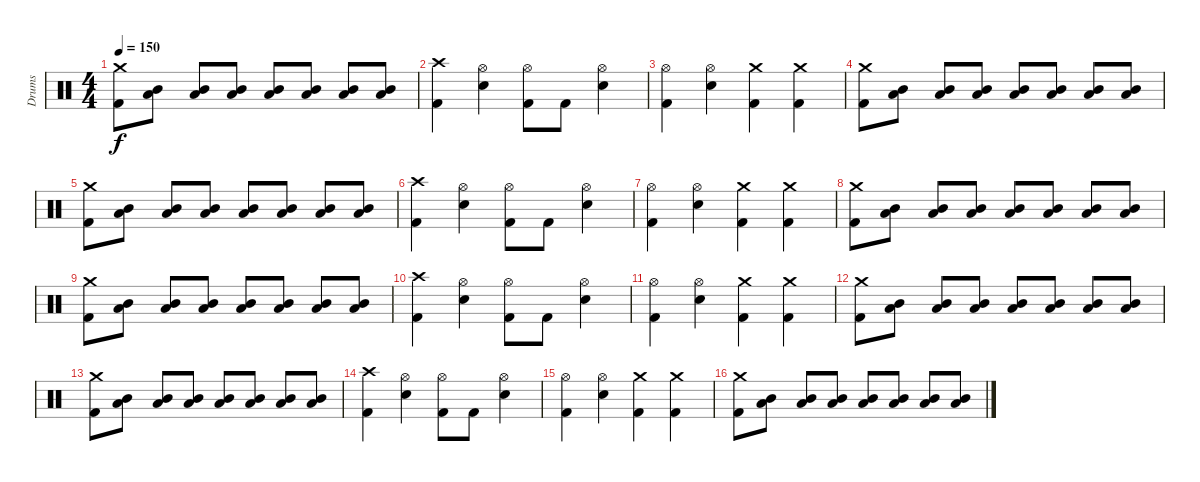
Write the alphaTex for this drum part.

\track ("Drums" "Drums") {instrument percussion}
\staff {score}
\articulation defaults
\ts (4 4)
\tempo 150
\clef neutral
\ks c
("Crash medium (hit)" "Kick (hit) 2").8{dy f} ("Low Tom (hit)" "Mid Tom (hit)").8 ("Low Tom (hit)" "Mid Tom (hit)").8 ("Low Tom (hit)" "Mid Tom (hit)").8 ("Low Tom (hit)" "Mid Tom (hit)").8 ("Low Tom (hit)" "Mid Tom (hit)").8 ("Low Tom (hit)" "Mid Tom (hit)").8 ("Low Tom (hit)" "Mid Tom (hit)").8 |
("Crash high (hit)" "Kick (hit) 2").4 ("Hi-Hat (open)" "Electric Snare (hit)").4 ("Hi-Hat (open)" "Kick (hit) 2").8 "Kick (hit) 2".8 ("Hi-Hat (open)" "Electric Snare (hit)").4 |
("Hi-Hat (open)" "Kick (hit) 2").4 ("Electric Snare (hit)" "Hi-Hat (open)").4 ("Crash medium (hit)" "Kick (hit) 2").4 ("Crash medium (hit)" "Kick (hit) 2").4 |
("Crash medium (hit)" "Kick (hit) 2").8 ("Low Tom (hit)" "Mid Tom (hit)").8 ("Low Tom (hit)" "Mid Tom (hit)").8 ("Low Tom (hit)" "Mid Tom (hit)").8 ("Low Tom (hit)" "Mid Tom (hit)").8 ("Low Tom (hit)" "Mid Tom (hit)").8 ("Low Tom (hit)" "Mid Tom (hit)").8 ("Low Tom (hit)" "Mid Tom (hit)").8 |
("Crash medium (hit)" "Kick (hit) 2").8 ("Low Tom (hit)" "Mid Tom (hit)").8 ("Low Tom (hit)" "Mid Tom (hit)").8 ("Low Tom (hit)" "Mid Tom (hit)").8 ("Low Tom (hit)" "Mid Tom (hit)").8 ("Low Tom (hit)" "Mid Tom (hit)").8 ("Low Tom (hit)" "Mid Tom (hit)").8 ("Low Tom (hit)" "Mid Tom (hit)").8 |
("Crash high (hit)" "Kick (hit) 2").4 ("Hi-Hat (open)" "Electric Snare (hit)").4 ("Hi-Hat (open)" "Kick (hit) 2").8 "Kick (hit) 2".8 ("Hi-Hat (open)" "Electric Snare (hit)").4 |
("Hi-Hat (open)" "Kick (hit) 2").4 ("Electric Snare (hit)" "Hi-Hat (open)").4 ("Crash medium (hit)" "Kick (hit) 2").4 ("Crash medium (hit)" "Kick (hit) 2").4 |
("Crash medium (hit)" "Kick (hit) 2").8 ("Low Tom (hit)" "Mid Tom (hit)").8 ("Low Tom (hit)" "Mid Tom (hit)").8 ("Low Tom (hit)" "Mid Tom (hit)").8 ("Low Tom (hit)" "Mid Tom (hit)").8 ("Low Tom (hit)" "Mid Tom (hit)").8 ("Low Tom (hit)" "Mid Tom (hit)").8 ("Low Tom (hit)" "Mid Tom (hit)").8 |
("Crash medium (hit)" "Kick (hit) 2").8 ("Low Tom (hit)" "Mid Tom (hit)").8 ("Low Tom (hit)" "Mid Tom (hit)").8 ("Low Tom (hit)" "Mid Tom (hit)").8 ("Low Tom (hit)" "Mid Tom (hit)").8 ("Low Tom (hit)" "Mid Tom (hit)").8 ("Low Tom (hit)" "Mid Tom (hit)").8 ("Low Tom (hit)" "Mid Tom (hit)").8 |
("Crash high (hit)" "Kick (hit) 2").4 ("Hi-Hat (open)" "Electric Snare (hit)").4 ("Hi-Hat (open)" "Kick (hit) 2").8 "Kick (hit) 2".8 ("Hi-Hat (open)" "Electric Snare (hit)").4 |
("Hi-Hat (open)" "Kick (hit) 2").4 ("Electric Snare (hit)" "Hi-Hat (open)").4 ("Crash medium (hit)" "Kick (hit) 2").4 ("Crash medium (hit)" "Kick (hit) 2").4 |
("Crash medium (hit)" "Kick (hit) 2").8 ("Low Tom (hit)" "Mid Tom (hit)").8 ("Low Tom (hit)" "Mid Tom (hit)").8 ("Low Tom (hit)" "Mid Tom (hit)").8 ("Low Tom (hit)" "Mid Tom (hit)").8 ("Low Tom (hit)" "Mid Tom (hit)").8 ("Low Tom (hit)" "Mid Tom (hit)").8 ("Low Tom (hit)" "Mid Tom (hit)").8 |
("Crash medium (hit)" "Kick (hit) 2").8 ("Low Tom (hit)" "Mid Tom (hit)").8 ("Low Tom (hit)" "Mid Tom (hit)").8 ("Low Tom (hit)" "Mid Tom (hit)").8 ("Low Tom (hit)" "Mid Tom (hit)").8 ("Low Tom (hit)" "Mid Tom (hit)").8 ("Low Tom (hit)" "Mid Tom (hit)").8 ("Low Tom (hit)" "Mid Tom (hit)").8 |
("Crash high (hit)" "Kick (hit) 2").4 ("Hi-Hat (open)" "Electric Snare (hit)").4 ("Hi-Hat (open)" "Kick (hit) 2").8 "Kick (hit) 2".8 ("Hi-Hat (open)" "Electric Snare (hit)").4 |
("Hi-Hat (open)" "Kick (hit) 2").4 ("Electric Snare (hit)" "Hi-Hat (open)").4 ("Crash medium (hit)" "Kick (hit) 2").4 ("Crash medium (hit)" "Kick (hit) 2").4 |
("Crash medium (hit)" "Kick (hit) 2").8 ("Low Tom (hit)" "Mid Tom (hit)").8 ("Low Tom (hit)" "Mid Tom (hit)").8 ("Low Tom (hit)" "Mid Tom (hit)").8 ("Low Tom (hit)" "Mid Tom (hit)").8 ("Low Tom (hit)" "Mid Tom (hit)").8 ("Low Tom (hit)" "Mid Tom (hit)").8 ("Low Tom (hit)" "Mid Tom (hit)").8
